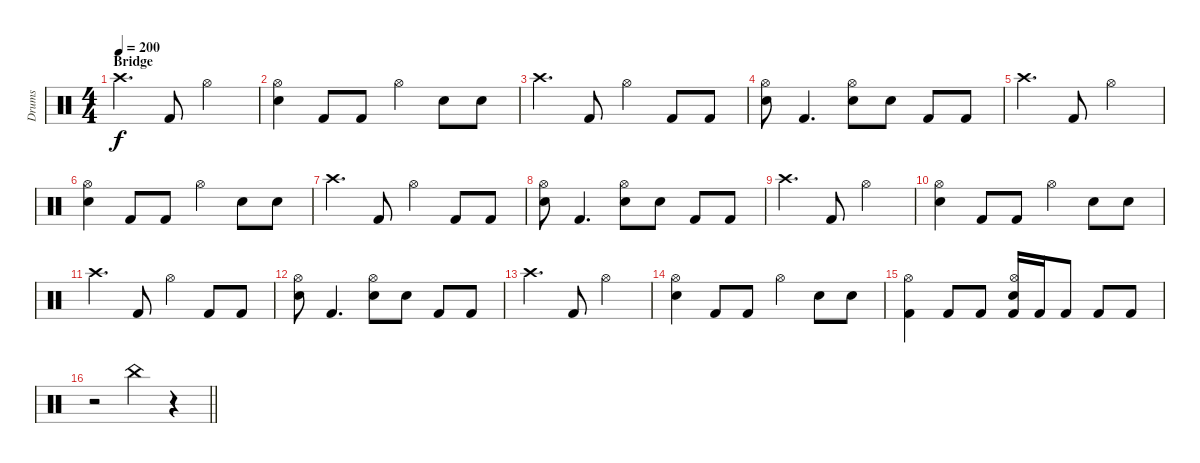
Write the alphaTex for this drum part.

\track ("Drums" "Drums") {instrument percussion}
\staff {score}
\articulation defaults
\ts (4 4)
\section ("" "Bridge")
\tempo 200
\clef neutral
\ks c "Crash high (hit)".4{d dy f} "Kick (hit) 2".8 "Hi-Hat (open)".2
|
("Hi-Hat (open)" "Electric Snare (hit)").4 "Kick (hit) 2".8 "Kick (hit) 2".8 "Hi-Hat (open)".4 "Electric Snare (hit)".8 "Electric Snare (hit)".8 |
"Crash high (hit)".4{d} "Kick (hit) 2".8 "Hi-Hat (open)".4 "Kick (hit) 2".8 "Kick (hit) 2".8 |
("Hi-Hat (open)" "Electric Snare (hit)").8 "Kick (hit) 2".4{d} ("Hi-Hat (open)" "Electric Snare (hit)").8 "Electric Snare (hit)".8 "Kick (hit) 2".8 "Kick (hit) 2".8 |
"Crash high (hit)".4{d} "Kick (hit) 2".8 "Hi-Hat (open)".2 |
("Hi-Hat (open)" "Electric Snare (hit)").4 "Kick (hit) 2".8 "Kick (hit) 2".8 "Hi-Hat (open)".4 "Electric Snare (hit)".8 "Electric Snare (hit)".8 |
"Crash high (hit)".4{d} "Kick (hit) 2".8 "Hi-Hat (open)".4 "Kick (hit) 2".8 "Kick (hit) 2".8 |
("Hi-Hat (open)" "Electric Snare (hit)").8 "Kick (hit) 2".4{d} ("Hi-Hat (open)" "Electric Snare (hit)").8 "Electric Snare (hit)".8 "Kick (hit) 2".8 "Kick (hit) 2".8 |
"Crash high (hit)".4{d} "Kick (hit) 2".8 "Hi-Hat (open)".2 |
("Hi-Hat (open)" "Electric Snare (hit)").4 "Kick (hit) 2".8 "Kick (hit) 2".8 "Hi-Hat (open)".4 "Electric Snare (hit)".8 "Electric Snare (hit)".8 |
"Crash high (hit)".4{d} "Kick (hit) 2".8 "Hi-Hat (open)".4 "Kick (hit) 2".8 "Kick (hit) 2".8 |
("Hi-Hat (open)" "Electric Snare (hit)").8 "Kick (hit) 2".4{d} ("Hi-Hat (open)" "Electric Snare (hit)").8 "Electric Snare (hit)".8 "Kick (hit) 2".8 "Kick (hit) 2".8 |
"Crash high (hit)".4{d} "Kick (hit) 2".8 "Hi-Hat (open)".2 |
("Hi-Hat (open)" "Electric Snare (hit)").4 "Kick (hit) 2".8 "Kick (hit) 2".8 "Hi-Hat (open)".4 "Electric Snare (hit)".8 "Electric Snare (hit)".8 |
("Hi-Hat (open)" "Kick (hit) 2").4 "Kick (hit) 2".8 "Kick (hit) 2".8 ("Hi-Hat (open)" "Electric Snare (hit)" "Kick (hit) 2").16 "Kick (hit) 2".16 "Kick (hit) 2".8 "Kick (hit) 2".8 "Kick (hit) 2".8 |
\barLineRight lightlight
r.2 "China (hit)".4 r.4
